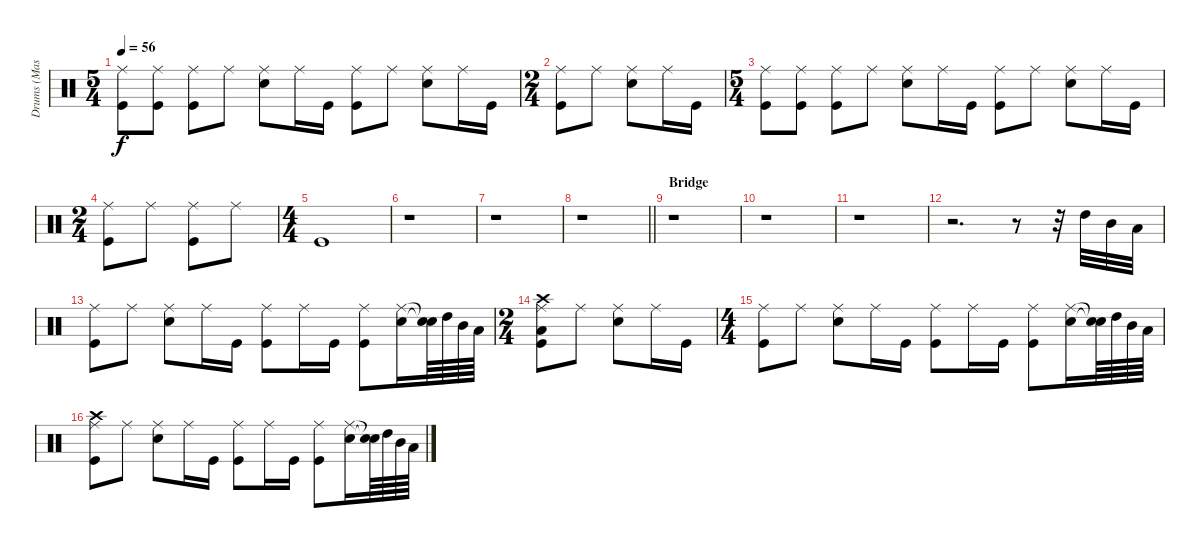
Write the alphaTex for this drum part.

\track ("Drums (Mason)" "Drums (Mas") {instrument percussion}
\staff {score}
\articulation defaults
\ts (5 4)
\tempo 56
\clef neutral
\ks c
("Ride (middle)" "Kick (hit)").8{dy f} ("Ride (middle)" "Kick (hit)").8 ("Ride (middle)" "Kick (hit)").8 "Ride (middle)".8 ("Ride (middle)" "Snare (hit) 2").8 "Ride (middle)".16 "Kick (hit)".16 ("Ride (middle)" "Kick (hit)").8 "Ride (middle)".8 ("Ride (middle)" "Snare (hit) 2").8 "Ride (middle)".16 "Kick (hit)".16 |
\ts (2 4)
("Ride (middle)" "Kick (hit)").8 "Ride (middle)".8 ("Ride (middle)" "Snare (hit) 2").8 "Ride (middle)".16 "Kick (hit)".16 |
\ts (5 4)
("Ride (middle)" "Kick (hit)").8 ("Ride (middle)" "Kick (hit)").8 ("Ride (middle)" "Kick (hit)").8 "Ride (middle)".8 ("Ride (middle)" "Snare (hit) 2").8 "Ride (middle)".16 "Kick (hit)".16 ("Ride (middle)" "Kick (hit)").8 "Ride (middle)".8 ("Ride (middle)" "Snare (hit) 2").8 "Ride (middle)".16 "Kick (hit)".16 |
\ts (2 4)
("Ride (middle)" "Kick (hit)").8 "Ride (middle)".8 ("Ride (middle)" "Kick (hit)").8 "Ride (middle)".8 |
\ts (4 4)
"Kick (hit)".1 |
r.1 |
r.1 |
\barLineRight lightlight
r.1 |
\section ("" "Bridge")
r.1 |
r.1 |
r.1 |
r.2{d} r.8 r.32 "High Tom (hit)".32 "Mid Tom (hit)".32 "Low Tom (hit)".32 |
("Ride (middle)" "Kick (hit)").8 "Ride (middle)".8 ("Ride (middle)" "Snare (hit) 2").8 "Ride (middle)".16 "Kick (hit)".16 ("Ride (middle)" "Kick (hit)").8 "Ride (middle)".16 "Kick (hit)".16 ("Ride (middle)" "Kick (hit)").8 ("Ride (middle)" "Snare (hit) 2").16 ("Snare (hit)"{t} "Snare (hit)"{t}).64 "High Tom (hit)".64 "Mid Tom (hit)".64 "Low Tom (hit)".64 |
\ts (2 4)
("Ride (middle)" "Crash high (hit)" "Low Floor Tom (hit)" "Kick (hit)").8 "Ride (middle)".8 ("Ride (middle)" "Snare (hit) 2").8 "Ride (middle)".16 "Kick (hit)".16 |
\ts (4 4)
("Ride (middle)" "Kick (hit)").8 "Ride (middle)".8 ("Ride (middle)" "Snare (hit) 2").8 "Ride (middle)".16 "Kick (hit)".16 ("Ride (middle)" "Kick (hit)").8 "Ride (middle)".16 "Kick (hit)".16 ("Ride (middle)" "Kick (hit)").8 ("Ride (middle)" "Snare (hit) 2").16 ("Snare (hit)"{t} "Snare (hit)"{t}).64 "High Tom (hit)".64 "Mid Tom (hit)".64 "Low Tom (hit)".64 |
("Ride (middle)" "Crash high (hit)" "Kick (hit)").8 "Ride (middle)".8 ("Ride (middle)" "Snare (hit) 2").8 "Ride (middle)".16 "Kick (hit)".16 ("Ride (middle)" "Kick (hit)").8 "Ride (middle)".16 "Kick (hit)".16 ("Ride (middle)" "Kick (hit)").8 ("Ride (middle)" "Snare (hit) 2").16 ("Snare (hit)"{t} "Snare (hit)"{t}).64 "High Tom (hit)".64 "Mid Tom (hit)".64 "Low Tom (hit)".64
